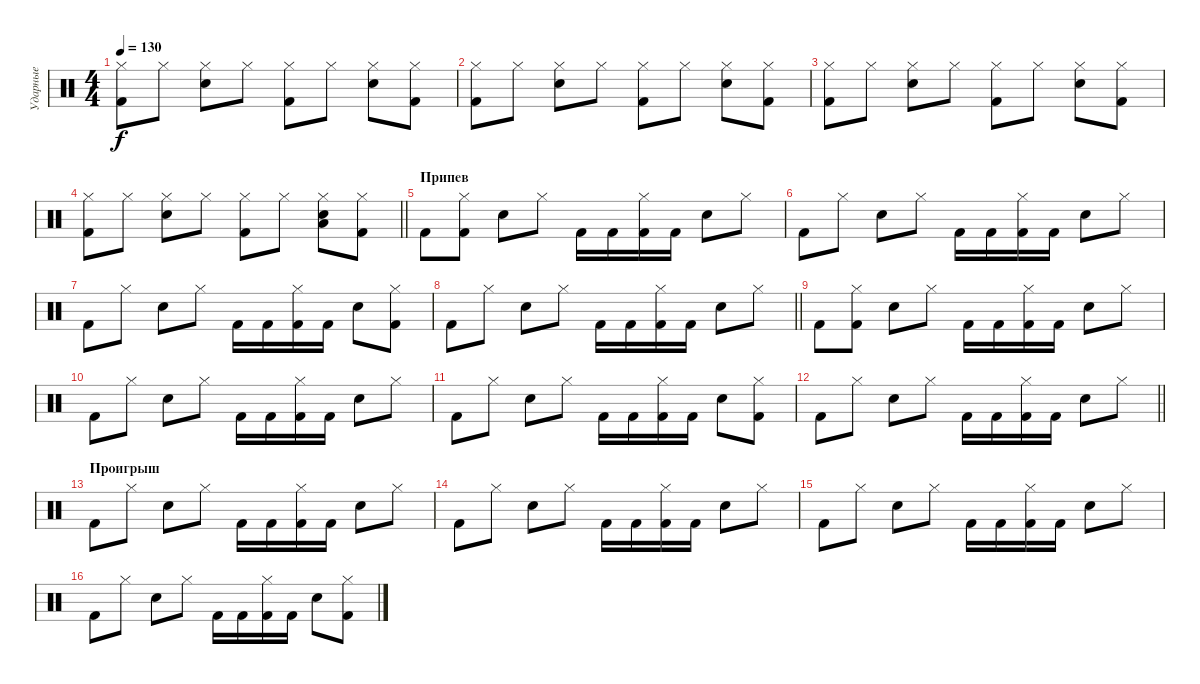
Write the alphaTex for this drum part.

\track ("Ударные" "Ударные") {instrument percussion}
\staff {score}
\articulation defaults
\ts (4 4)
\tempo 130
\clef neutral
\ks c
("Hi-Hat (closed)" "Kick (hit) 2").8{dy f} "Hi-Hat (closed)".8 ("Hi-Hat (closed)" "Electric Snare (hit)").8 "Hi-Hat (closed)".8 ("Hi-Hat (closed)" "Kick (hit) 2").8 "Hi-Hat (closed)".8 ("Hi-Hat (closed)" "Electric Snare (hit)").8 ("Hi-Hat (closed)" "Kick (hit) 2").8 |
("Hi-Hat (closed)" "Kick (hit) 2").8 "Hi-Hat (closed)".8 ("Hi-Hat (closed)" "Electric Snare (hit)").8 "Hi-Hat (closed)".8 ("Hi-Hat (closed)" "Kick (hit) 2").8 "Hi-Hat (closed)".8 ("Hi-Hat (closed)" "Electric Snare (hit)").8 ("Hi-Hat (closed)" "Kick (hit) 2").8 |
("Hi-Hat (closed)" "Kick (hit) 2").8 "Hi-Hat (closed)".8 ("Hi-Hat (closed)" "Electric Snare (hit)").8 "Hi-Hat (closed)".8 ("Hi-Hat (closed)" "Kick (hit) 2").8 "Hi-Hat (closed)".8 ("Hi-Hat (closed)" "Electric Snare (hit)").8 ("Hi-Hat (closed)" "Kick (hit) 2").8 |
\barLineRight lightlight
("Hi-Hat (closed)" "Kick (hit) 2").8 "Hi-Hat (closed)".8 ("Hi-Hat (closed)" "Electric Snare (hit)").8 "Hi-Hat (closed)".8 ("Hi-Hat (closed)" "Kick (hit) 2").8 "Hi-Hat (closed)".8 ("Hi-Hat (closed)" "Electric Snare (hit)" "Low Tom (hit)").8 ("Hi-Hat (closed)" "Kick (hit) 2").8 |
\section ("" "Припев")
"Kick (hit) 2".8 ("Hi-Hat (closed)" "Kick (hit) 2").8 "Electric Snare (hit)".8 "Hi-Hat (closed)".8 "Kick (hit) 2".16 "Kick (hit) 2".16 ("Hi-Hat (closed)" "Kick (hit) 2").16 "Kick (hit) 2".16 "Electric Snare (hit)".8 "Hi-Hat (closed)".8 |
"Kick (hit) 2".8 "Hi-Hat (closed)".8 "Electric Snare (hit)".8 "Hi-Hat (closed)".8 "Kick (hit) 2".16 "Kick (hit) 2".16 ("Hi-Hat (closed)" "Kick (hit) 2").16 "Kick (hit) 2".16 "Electric Snare (hit)".8 "Hi-Hat (closed)".8 |
"Kick (hit) 2".8 "Hi-Hat (closed)".8 "Electric Snare (hit)".8 "Hi-Hat (closed)".8 "Kick (hit) 2".16 "Kick (hit) 2".16 ("Hi-Hat (closed)" "Kick (hit) 2").16 "Kick (hit) 2".16 "Electric Snare (hit)".8 ("Hi-Hat (closed)" "Kick (hit) 2").8 |
\barLineRight lightlight "Kick (hit) 2".8 "Hi-Hat (closed)".8 "Electric Snare (hit)".8 "Hi-Hat (closed)".8 "Kick (hit) 2".16 "Kick (hit) 2".16
("Hi-Hat (closed)" "Kick (hit) 2").16 "Kick (hit) 2".16 "Electric Snare (hit)".8 "Hi-Hat (closed)".8 |
"Kick (hit) 2".8 ("Hi-Hat (closed)" "Kick (hit) 2").8 "Electric Snare (hit)".8 "Hi-Hat (closed)".8 "Kick (hit) 2".16 "Kick (hit) 2".16 ("Hi-Hat (closed)" "Kick (hit) 2").16 "Kick (hit) 2".16 "Electric Snare (hit)".8 "Hi-Hat (closed)".8 |
"Kick (hit) 2".8 "Hi-Hat (closed)".8 "Electric Snare (hit)".8 "Hi-Hat (closed)".8 "Kick (hit) 2".16 "Kick (hit) 2".16 ("Hi-Hat (closed)" "Kick (hit) 2").16 "Kick (hit) 2".16 "Electric Snare (hit)".8 "Hi-Hat (closed)".8 |
"Kick (hit) 2".8 "Hi-Hat (closed)".8 "Electric Snare (hit)".8 "Hi-Hat (closed)".8 "Kick (hit) 2".16 "Kick (hit) 2".16 ("Hi-Hat (closed)" "Kick (hit) 2").16 "Kick (hit) 2".16 "Electric Snare (hit)".8 ("Hi-Hat (closed)" "Kick (hit) 2").8 |
\barLineRight lightlight "Kick (hit) 2".8 "Hi-Hat (closed)".8 "Electric Snare (hit)".8 "Hi-Hat (closed)".8 "Kick (hit) 2".16 "Kick (hit) 2".16
("Hi-Hat (closed)" "Kick (hit) 2").16 "Kick (hit) 2".16 "Electric Snare (hit)".8 "Hi-Hat (closed)".8 |
\section ("" "Проигрыш")
"Kick (hit) 2".8 "Hi-Hat (closed)".8 "Electric Snare (hit)".8 "Hi-Hat (closed)".8 "Kick (hit) 2".16 "Kick (hit) 2".16 ("Hi-Hat (closed)" "Kick (hit) 2").16 "Kick (hit) 2".16 "Electric Snare (hit)".8 "Hi-Hat (closed)".8 |
"Kick (hit) 2".8 "Hi-Hat (closed)".8 "Electric Snare (hit)".8 "Hi-Hat (closed)".8 "Kick (hit) 2".16 "Kick (hit) 2".16 ("Hi-Hat (closed)" "Kick (hit) 2").16 "Kick (hit) 2".16 "Electric Snare (hit)".8 "Hi-Hat (closed)".8 |
"Kick (hit) 2".8 "Hi-Hat (closed)".8 "Electric Snare (hit)".8 "Hi-Hat (closed)".8 "Kick (hit) 2".16 "Kick (hit) 2".16 ("Hi-Hat (closed)" "Kick (hit) 2").16 "Kick (hit) 2".16 "Electric Snare (hit)".8 "Hi-Hat (closed)".8 |
"Kick (hit) 2".8 "Hi-Hat (closed)".8 "Electric Snare (hit)".8 "Hi-Hat (closed)".8 "Kick (hit) 2".16 "Kick (hit) 2".16 ("Hi-Hat (closed)" "Kick (hit) 2").16 "Kick (hit) 2".16 "Electric Snare (hit)".8 ("Hi-Hat (closed)" "Kick (hit) 2").8
